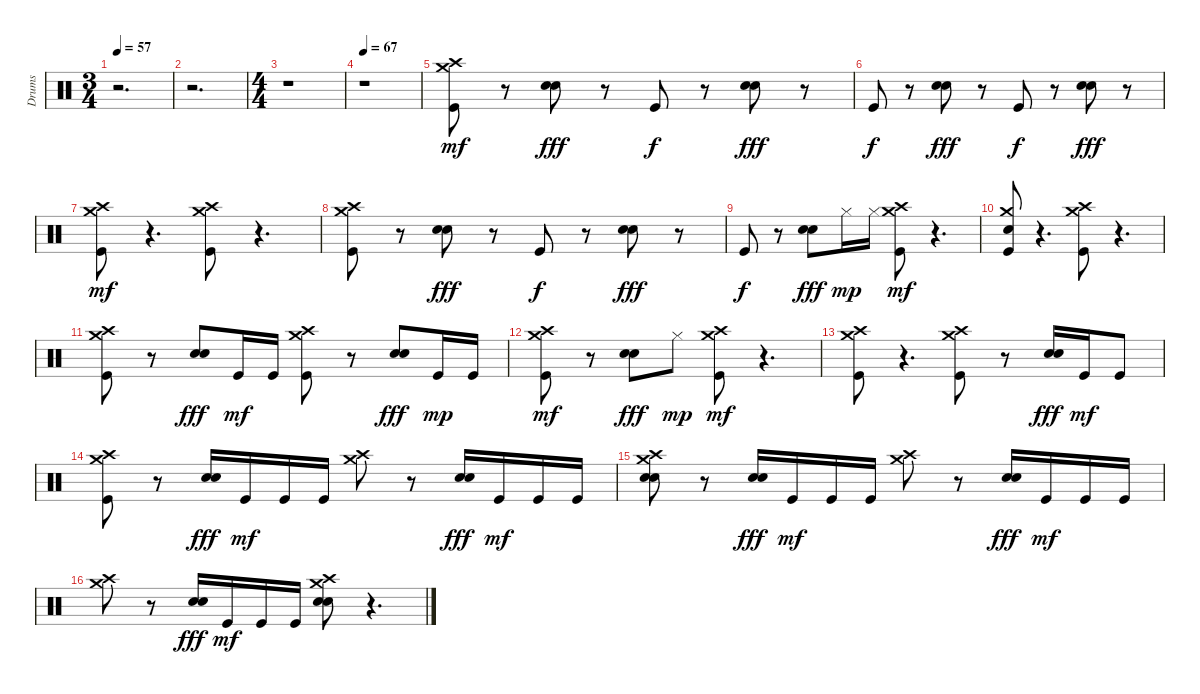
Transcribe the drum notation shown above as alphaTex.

\track ("Drums" "Drums") {instrument percussion}
\staff {score}
\articulation defaults
\ts (3 4)
\tempo 57
\clef neutral
\ks c
r.2{d dy f} |
r.2{d} |
\ts (4 4)
r.1 |
\tempo 67
r.1 |
("Kick (hit)" "Crash high (hit)" "Crash medium (hit)").8{dy mf} r.8 ("Snare (hit) 2" "Electric Snare (hit)").8{dy fff} r.8 "Kick (hit)".8{dy f} r.8 ("Snare (hit) 2" "Electric Snare (hit)").8{dy fff} r.8 |
"Kick (hit)".8{dy f} r.8 ("Snare (hit) 2" "Electric Snare (hit)").8{dy fff} r.8 "Kick (hit)".8{dy f} r.8 ("Snare (hit) 2" "Electric Snare (hit)").8{dy fff} r.8 |
("Kick (hit)" "Crash high (hit)" "Crash medium (hit)").8{dy mf} r.4{d} ("Kick (hit)" "Crash high (hit)" "Crash medium (hit)").8 r.4{d} |
("Kick (hit)" "Crash high (hit)" "Crash medium (hit)").8 r.8 ("Snare (hit) 2" "Electric Snare (hit)").8{dy fff} r.8 "Kick (hit)".8{dy f} r.8 ("Snare (hit) 2" "Electric Snare (hit)").8{dy fff} r.8 |
"Kick (hit)".8{dy f} r.8 ("Snare (hit) 2" "Electric Snare (hit)").8{dy fff} "Hi-Hat (closed)".16{dy mp} "Hi-Hat (closed)".16 ("Kick (hit)" "Crash high (hit)" "Crash medium (hit)").8{dy mf} r.4{d} |
("Kick (hit)" "Electric Snare (hit)" "Crash medium (hit)").8 r.4{d} ("Kick (hit)" "Crash high (hit)" "Crash medium (hit)").8 r.4{d} |
("Kick (hit)" "Crash high (hit)" "Crash medium (hit)").8 r.8 ("Snare (hit) 2" "Electric Snare (hit)").8{dy fff} "Kick (hit)".16{dy mf} "Kick (hit)".16 ("Kick (hit)" "Crash high (hit)" "Crash medium (hit)").8 r.8 ("Snare (hit) 2" "Electric Snare (hit)").8{dy fff} "Kick (hit)".16{dy mp} "Kick (hit)".16 |
("Kick (hit)" "Crash high (hit)" "Crash medium (hit)").8{dy mf} r.8 ("Snare (hit) 2" "Electric Snare (hit)").8{dy fff} "Hi-Hat (closed)".8{dy mp} ("Kick (hit)" "Crash high (hit)" "Crash medium (hit)").8{dy mf} r.4{d} |
("Kick (hit)" "Crash high (hit)" "Crash medium (hit)").8 r.4{d} ("Kick (hit)" "Crash high (hit)" "Crash medium (hit)").8 r.8 ("Snare (hit) 2" "Electric Snare (hit)").16{dy fff} "Kick (hit)".16{dy mf} "Kick (hit)".8 |
("Kick (hit)" "Crash high (hit)" "Crash medium (hit)").8 r.8 ("Snare (hit) 2" "Electric Snare (hit)").16{dy fff} "Kick (hit)".16{dy mf} "Kick (hit)".16 "Kick (hit)".16 ("Crash high (hit)" "Crash medium (hit)").8 r.8 ("Snare (hit) 2" "Electric Snare (hit)").16{dy fff} "Kick (hit)".16{dy mf} "Kick (hit)".16 "Kick (hit)".16 |
("Snare (hit) 2" "Electric Snare (hit)" "Crash high (hit)" "Crash medium (hit)").8 r.8 ("Snare (hit) 2" "Electric Snare (hit)").16{dy fff} "Kick (hit)".16{dy mf} "Kick (hit)".16 "Kick (hit)".16 ("Crash high (hit)" "Crash medium (hit)").8 r.8 ("Snare (hit) 2" "Electric Snare (hit)").16{dy fff} "Kick (hit)".16{dy mf} "Kick (hit)".16 "Kick (hit)".16 |
("Crash high (hit)" "Crash medium (hit)").8 r.8 ("Snare (hit) 2" "Electric Snare (hit)").16{dy fff} "Kick (hit)".16{dy mf} "Kick (hit)".16 "Kick (hit)".16 ("Snare (hit) 2" "Electric Snare (hit)" "Crash high (hit)" "Crash medium (hit)").8 r.4{d}
